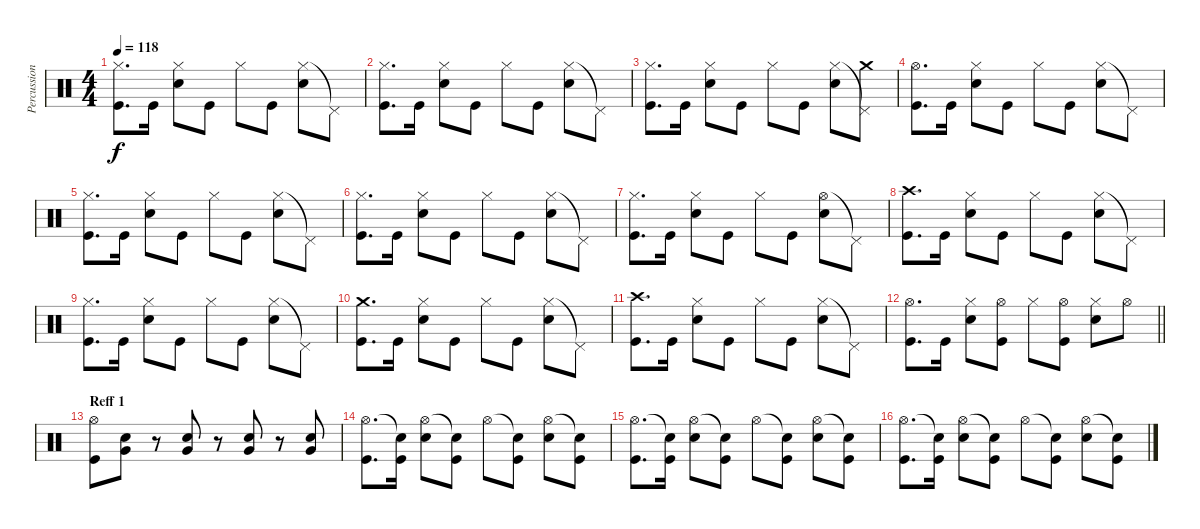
\track ("Percussion 1" "Percussion") {instrument percussion}
\staff {score}
\articulation defaults
\ts (4 4)
\tempo 118
\clef neutral
\ks c
("Hi-Hat (closed)" "Kick (hit)").8{d dy f} "Kick (hit)".16 ("Hi-Hat (closed)" "Electric Snare (hit)").8 "Kick (hit)".8 "Hi-Hat (closed)".8 "Kick (hit)".8 ("Hi-Hat (closed)" "Electric Snare (hit)").8 "Pedal Hi-Hat (hit)"{t}.8 |
("Hi-Hat (closed)" "Kick (hit)").8{d} "Kick (hit)".16 ("Hi-Hat (closed)" "Electric Snare (hit)").8 "Kick (hit)".8 "Hi-Hat (closed)".8 "Kick (hit)".8 ("Hi-Hat (closed)" "Electric Snare (hit)").8 "Pedal Hi-Hat (hit)"{t}.8 |
("Hi-Hat (closed)" "Kick (hit)").8{d} "Kick (hit)".16 ("Hi-Hat (closed)" "Electric Snare (hit)").8 "Kick (hit)".8 "Hi-Hat (closed)".8 "Kick (hit)".8 ("Hi-Hat (closed)" "Electric Snare (hit)").8 ("Pedal Hi-Hat (hit)"{t} "Crash medium (hit)").8 |
("Hi-Hat (open)" "Kick (hit)").8{d} "Kick (hit)".16 ("Hi-Hat (closed)" "Electric Snare (hit)").8 "Kick (hit)".8 "Hi-Hat (closed)".8 "Kick (hit)".8 ("Hi-Hat (closed)" "Electric Snare (hit)").8 "Pedal Hi-Hat (hit)"{t}.8 |
("Hi-Hat (closed)" "Kick (hit)").8{d} "Kick (hit)".16 ("Hi-Hat (closed)" "Electric Snare (hit)").8 "Kick (hit)".8 "Hi-Hat (closed)".8 "Kick (hit)".8 ("Hi-Hat (closed)" "Electric Snare (hit)").8 "Pedal Hi-Hat (hit)"{t}.8 |
("Hi-Hat (closed)" "Kick (hit)").8{d} "Kick (hit)".16 ("Hi-Hat (closed)" "Electric Snare (hit)").8 "Kick (hit)".8 "Hi-Hat (closed)".8 "Kick (hit)".8 ("Hi-Hat (closed)" "Electric Snare (hit)").8 "Pedal Hi-Hat (hit)"{t}.8 |
("Hi-Hat (closed)" "Kick (hit)").8{d} "Kick (hit)".16 ("Hi-Hat (closed)" "Electric Snare (hit)").8 "Kick (hit)".8 "Hi-Hat (closed)".8 "Kick (hit)".8 ("Hi-Hat (open)" "Electric Snare (hit)").8 "Pedal Hi-Hat (hit)"{t}.8 |
("Crash high (hit)" "Kick (hit)").8{d} "Kick (hit)".16 ("Hi-Hat (closed)" "Electric Snare (hit)").8 "Kick (hit)".8 "Hi-Hat (closed)".8 "Kick (hit)".8 ("Hi-Hat (closed)" "Electric Snare (hit)").8 "Pedal Hi-Hat (hit)"{t}.8 |
("Hi-Hat (closed)" "Kick (hit)").8{d} "Kick (hit)".16 ("Hi-Hat (closed)" "Electric Snare (hit)").8 "Kick (hit)".8 "Hi-Hat (closed)".8 "Kick (hit)".8 ("Hi-Hat (closed)" "Electric Snare (hit)").8 "Pedal Hi-Hat (hit)"{t}.8 |
("Crash medium (hit)" "Kick (hit)").8{d} "Kick (hit)".16 ("Hi-Hat (closed)" "Electric Snare (hit)").8 "Kick (hit)".8 "Hi-Hat (closed)".8 "Kick (hit)".8 ("Hi-Hat (closed)" "Electric Snare (hit)").8 "Pedal Hi-Hat (hit)"{t}.8 |
("Crash high (hit)" "Kick (hit)").8{d} "Kick (hit)".16 ("Hi-Hat (closed)" "Electric Snare (hit)").8 "Kick (hit)".8 "Hi-Hat (closed)".8 "Kick (hit)".8 ("Hi-Hat (closed)" "Electric Snare (hit)").8 "Pedal Hi-Hat (hit)"{t}.8 |
\barLineRight lightlight
("Hi-Hat (open)" "Kick (hit)").8{d} "Kick (hit)".16 ("Hi-Hat (closed)" "Electric Snare (hit)").8 ("Hi-Hat (open)" "Kick (hit)").8 "Hi-Hat (closed)".8 ("Hi-Hat (open)" "Kick (hit)").8 ("Hi-Hat (closed)" "Electric Snare (hit)").8 "Hi-Hat (open)".8 |
\section ("" "Reff 1")
("Hi-Hat (open)" "Kick (hit)").8 ("Electric Snare (hit)" "Very Low Tom (hit)").8 r.8 ("Electric Snare (hit)" "Very Low Tom (hit)").8 r.8 ("Electric Snare (hit)" "Very Low Tom (hit)").8 r.8 ("Electric Snare (hit)" "Very Low Tom (hit)").8 |
("Hi-Hat (open)" "Kick (hit)").8{d} ("Snare (hit)"{t} "Kick (hit)").16 ("Hi-Hat (open)" "Electric Snare (hit)").8 ("Snare (hit)"{t} "Kick (hit)").8 "Hi-Hat (open)".8 ("Snare (hit)"{t} "Kick (hit)").8 ("Hi-Hat (open)" "Electric Snare (hit)").8 ("Snare (hit)"{t} "Kick (hit)").8 |
("Hi-Hat (open)" "Kick (hit)").8{d} ("Snare (hit)"{t} "Kick (hit)").16 ("Hi-Hat (open)" "Electric Snare (hit)").8 ("Snare (hit)"{t} "Kick (hit)").8 "Hi-Hat (open)".8 ("Snare (hit)"{t} "Kick (hit)").8 ("Hi-Hat (open)" "Electric Snare (hit)").8 ("Snare (hit)"{t} "Kick (hit)").8 |
("Hi-Hat (open)" "Kick (hit)").8{d} ("Snare (hit)"{t} "Kick (hit)").16 ("Hi-Hat (open)" "Electric Snare (hit)").8 ("Snare (hit)"{t} "Kick (hit)").8 "Hi-Hat (open)".8 ("Snare (hit)"{t} "Kick (hit)").8 ("Hi-Hat (open)" "Electric Snare (hit)").8 ("Snare (hit)"{t} "Kick (hit)").8
